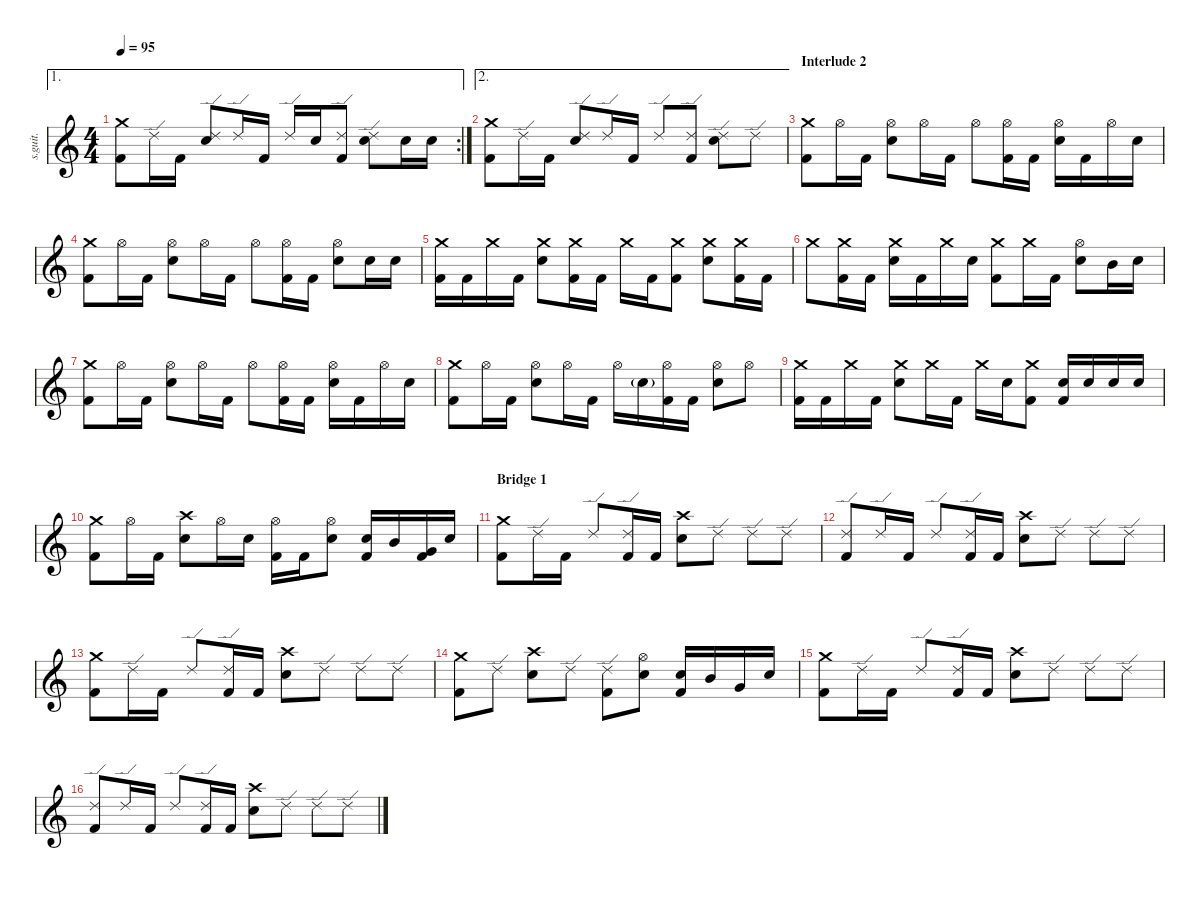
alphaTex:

\defaultSystemsLayout 4
\hideDynamics
\bracketExtendMode nobrackets
\track ("Josh Freese" "s.guit.") {instrument percussion}
\staff {score}
\articulation defaults
\ae 1
\rc 2
\ts (4 4)
\tempo 95
\clef g2
\ks c
("Crash medium (hit)" "Kick (hit) 2").8{lyrics (0 "") lyrics (1 "") lyrics (2 "") lyrics (3 "") lyrics (4 "") dy f} "Ride (edge) 2".16{lyrics (0 "") lyrics (1 "") lyrics (2 "") lyrics (3 "") lyrics (4 "")} "Kick (hit) 2".16{lyrics (0 "") lyrics (1 "") lyrics (2 "") lyrics (3 "") lyrics (4 "")} ("Ride (edge) 2" "Snare (hit) 2").8{lyrics (0 "") lyrics (1 "") lyrics (2 "") lyrics (3 "") lyrics (4 "")} "Ride (edge) 2".16{lyrics (0 "") lyrics (1 "") lyrics (2 "") lyrics (3 "") lyrics (4 "")} "Kick (hit) 2".16{lyrics (0 "") lyrics (1 "") lyrics (2 "") lyrics (3 "") lyrics (4 "")} "Ride (edge) 2".16{lyrics (0 "") lyrics (1 "") lyrics (2 "") lyrics (3 "") lyrics (4 "")} "Snare (hit) 2".16{lyrics (0 "") lyrics (1 "") lyrics (2 "") lyrics (3 "") lyrics (4 "")} ("Ride (edge) 2" "Kick (hit) 2").8{lyrics (0 "") lyrics (1 "") lyrics (2 "") lyrics (3 "") lyrics (4 "")} ("Ride (edge) 2" "Snare (hit) 2").8{lyrics (0 "") lyrics (1 "") lyrics (2 "") lyrics (3 "") lyrics (4 "")} "Snare (hit) 2".16{lyrics (0 "") lyrics (1 "") lyrics (2 "") lyrics (3 "") lyrics (4 "")} "Snare (hit) 2".16{lyrics (0 "") lyrics (1 "") lyrics (2 "") lyrics (3 "") lyrics (4 "")} |
\ae 2
("Crash medium (hit)" "Kick (hit) 2").8{lyrics (0 "") lyrics (1 "") lyrics (2 "") lyrics (3 "") lyrics (4 "")} "Ride (edge) 2".16{lyrics (0 "") lyrics (1 "") lyrics (2 "") lyrics (3 "") lyrics (4 "")} "Kick (hit) 2".16{lyrics (0 "") lyrics (1 "") lyrics (2 "") lyrics (3 "") lyrics (4 "")} ("Ride (edge) 2" "Snare (hit) 2").8{lyrics (0 "") lyrics (1 "") lyrics (2 "") lyrics (3 "") lyrics (4 "")} "Ride (edge) 2".16{lyrics (0 "") lyrics (1 "") lyrics (2 "") lyrics (3 "") lyrics (4 "")} "Kick (hit) 2".16{lyrics (0 "") lyrics (1 "") lyrics (2 "") lyrics (3 "") lyrics (4 "")} "Ride (edge) 2".8{lyrics (0 "") lyrics (1 "") lyrics (2 "") lyrics (3 "") lyrics (4 "")} ("Ride (edge) 2" "Kick (hit) 2").8{lyrics (0 "") lyrics (1 "") lyrics (2 "") lyrics (3 "") lyrics (4 "")} ("Ride (edge) 2" "Snare (hit) 2").8{lyrics (0 "") lyrics (1 "") lyrics (2 "") lyrics (3 "") lyrics (4 "")} "Ride (edge) 2".8{lyrics (0 "") lyrics (1 "") lyrics (2 "") lyrics (3 "") lyrics (4 "")} |
\section ("" "Interlude 2")
("Crash medium (hit)" "Kick (hit) 2").8{lyrics (0 "") lyrics (1 "") lyrics (2 "") lyrics (3 "") lyrics (4 "")} "Hi-Hat (open)".16{lyrics (0 "") lyrics (1 "") lyrics (2 "") lyrics (3 "") lyrics (4 "")} "Kick (hit) 2".16{lyrics (0 "") lyrics (1 "") lyrics (2 "") lyrics (3 "") lyrics (4 "")} ("Hi-Hat (open)" "Snare (hit) 2").8{lyrics (0 "") lyrics (1 "") lyrics (2 "") lyrics (3 "") lyrics (4 "")} "Hi-Hat (open)".16{lyrics (0 "") lyrics (1 "") lyrics (2 "") lyrics (3 "") lyrics (4 "")} "Kick (hit) 2".16{lyrics (0 "") lyrics (1 "") lyrics (2 "") lyrics (3 "") lyrics (4 "")} "Hi-Hat (open)".8{lyrics (0 "") lyrics (1 "") lyrics (2 "") lyrics (3 "") lyrics (4 "")} ("Hi-Hat (open)" "Kick (hit) 2").16{lyrics (0 "") lyrics (1 "") lyrics (2 "") lyrics (3 "") lyrics (4 "")} "Kick (hit) 2".16{lyrics (0 "") lyrics (1 "") lyrics (2 "") lyrics (3 "") lyrics (4 "")} ("Hi-Hat (open)" "Snare (hit) 2").16{lyrics (0 "") lyrics (1 "") lyrics (2 "") lyrics (3 "") lyrics (4 "")} "Kick (hit) 2".16{lyrics (0 "") lyrics (1 "") lyrics (2 "") lyrics (3 "") lyrics (4 "")} "Hi-Hat (open)".16{lyrics (0 "") lyrics (1 "") lyrics (2 "") lyrics (3 "") lyrics (4 "")} "Snare (hit) 2".16{lyrics (0 "") lyrics (1 "") lyrics (2 "") lyrics (3 "") lyrics (4 "")} |
("Crash medium (hit)" "Kick (hit) 2").8{lyrics (0 "") lyrics (1 "") lyrics (2 "") lyrics (3 "") lyrics (4 "")} "Hi-Hat (open)".16{lyrics (0 "") lyrics (1 "") lyrics (2 "") lyrics (3 "") lyrics (4 "")} "Kick (hit) 2".16{lyrics (0 "") lyrics (1 "") lyrics (2 "") lyrics (3 "") lyrics (4 "")} ("Hi-Hat (open)" "Snare (hit) 2").8{lyrics (0 "") lyrics (1 "") lyrics (2 "") lyrics (3 "") lyrics (4 "")} "Hi-Hat (open)".16{lyrics (0 "") lyrics (1 "") lyrics (2 "") lyrics (3 "") lyrics (4 "")} "Kick (hit) 2".16{lyrics (0 "") lyrics (1 "") lyrics (2 "") lyrics (3 "") lyrics (4 "")} "Hi-Hat (open)".8{lyrics (0 "") lyrics (1 "") lyrics (2 "") lyrics (3 "") lyrics (4 "")} ("Hi-Hat (open)" "Kick (hit) 2").16{lyrics (0 "") lyrics (1 "") lyrics (2 "") lyrics (3 "") lyrics (4 "")} "Kick (hit) 2".16{lyrics (0 "") lyrics (1 "") lyrics (2 "") lyrics (3 "") lyrics (4 "")} ("Hi-Hat (open)" "Snare (hit) 2").8{lyrics (0 "") lyrics (1 "") lyrics (2 "") lyrics (3 "") lyrics (4 "")} "Snare (hit) 2".16{lyrics (0 "") lyrics (1 "") lyrics (2 "") lyrics (3 "") lyrics (4 "")} "Snare (hit) 2".16{lyrics (0 "") lyrics (1 "") lyrics (2 "") lyrics (3 "") lyrics (4 "")} |
("Crash medium (hit)" "Kick (hit) 2").16{lyrics (0 "") lyrics (1 "") lyrics (2 "") lyrics (3 "") lyrics (4 "")} "Kick (hit) 2".16{lyrics (0 "") lyrics (1 "") lyrics (2 "") lyrics (3 "") lyrics (4 "")} "Crash medium (hit)".16{lyrics (0 "") lyrics (1 "") lyrics (2 "") lyrics (3 "") lyrics (4 "")} "Kick (hit) 2".16{lyrics (0 "") lyrics (1 "") lyrics (2 "") lyrics (3 "") lyrics (4 "")} ("Crash medium (hit)" "Snare (hit) 2").8{lyrics (0 "") lyrics (1 "") lyrics (2 "") lyrics (3 "") lyrics (4 "")} ("Crash medium (hit)" "Kick (hit) 2").16{lyrics (0 "") lyrics (1 "") lyrics (2 "") lyrics (3 "") lyrics (4 "")} "Kick (hit) 2".16{lyrics (0 "") lyrics (1 "") lyrics (2 "") lyrics (3 "") lyrics (4 "")} "Crash medium (hit)".16{lyrics (0 "") lyrics (1 "") lyrics (2 "") lyrics (3 "") lyrics (4 "")} "Kick (hit) 2".16{lyrics (0 "") lyrics (1 "") lyrics (2 "") lyrics (3 "") lyrics (4 "")} ("Crash medium (hit)" "Kick (hit) 2").8{lyrics (0 "") lyrics (1 "") lyrics (2 "") lyrics (3 "") lyrics (4 "")} ("Crash medium (hit)" "Snare (hit) 2").8{lyrics (0 "") lyrics (1 "") lyrics (2 "") lyrics (3 "") lyrics (4 "")} ("Crash medium (hit)" "Kick (hit) 2").16{lyrics (0 "") lyrics (1 "") lyrics (2 "") lyrics (3 "") lyrics (4 "")} "Kick (hit) 2".16{lyrics (0 "") lyrics (1 "") lyrics (2 "") lyrics (3 "") lyrics (4 "")} |
"Crash medium (hit)".8{lyrics (0 "") lyrics (1 "") lyrics (2 "") lyrics (3 "") lyrics (4 "")} ("Crash medium (hit)" "Kick (hit) 2").16{lyrics (0 "") lyrics (1 "") lyrics (2 "") lyrics (3 "") lyrics (4 "")} "Kick (hit) 2".16{lyrics (0 "") lyrics (1 "") lyrics (2 "") lyrics (3 "") lyrics (4 "")} ("Crash medium (hit)" "Snare (hit) 2").16{lyrics (0 "") lyrics (1 "") lyrics (2 "") lyrics (3 "") lyrics (4 "")} "Kick (hit) 2".16{lyrics (0 "") lyrics (1 "") lyrics (2 "") lyrics (3 "") lyrics (4 "")} "Crash medium (hit)".16{lyrics (0 "") lyrics (1 "") lyrics (2 "") lyrics (3 "") lyrics (4 "")} "Snare (hit) 2".16{lyrics (0 "") lyrics (1 "") lyrics (2 "") lyrics (3 "") lyrics (4 "")} ("Crash medium (hit)" "Kick (hit) 2").8{lyrics (0 "") lyrics (1 "") lyrics (2 "") lyrics (3 "") lyrics (4 "")} "Crash medium (hit)".16{lyrics (0 "") lyrics (1 "") lyrics (2 "") lyrics (3 "") lyrics (4 "")} "Kick (hit) 2".16{lyrics (0 "") lyrics (1 "") lyrics (2 "") lyrics (3 "") lyrics (4 "")} ("Hi-Hat (open)" "Snare (hit) 2").8{lyrics (0 "") lyrics (1 "") lyrics (2 "") lyrics (3 "") lyrics (4 "")} "Mid Tom (hit)".16{lyrics (0 "") lyrics (1 "") lyrics (2 "") lyrics (3 "") lyrics (4 "")} "Snare (hit) 2".16{lyrics (0 "") lyrics (1 "") lyrics (2 "") lyrics (3 "") lyrics (4 "")} |
("Crash medium (hit)" "Kick (hit) 2").8{lyrics (0 "") lyrics (1 "") lyrics (2 "") lyrics (3 "") lyrics (4 "")} "Hi-Hat (open)".16{lyrics (0 "") lyrics (1 "") lyrics (2 "") lyrics (3 "") lyrics (4 "")} "Kick (hit) 2".16{lyrics (0 "") lyrics (1 "") lyrics (2 "") lyrics (3 "") lyrics (4 "")} ("Hi-Hat (open)" "Snare (hit) 2").8{lyrics (0 "") lyrics (1 "") lyrics (2 "") lyrics (3 "") lyrics (4 "")} "Hi-Hat (open)".16{lyrics (0 "") lyrics (1 "") lyrics (2 "") lyrics (3 "") lyrics (4 "")} "Kick (hit) 2".16{lyrics (0 "") lyrics (1 "") lyrics (2 "") lyrics (3 "") lyrics (4 "")} "Hi-Hat (open)".8{lyrics (0 "") lyrics (1 "") lyrics (2 "") lyrics (3 "") lyrics (4 "")} ("Hi-Hat (open)" "Kick (hit) 2").16{lyrics (0 "") lyrics (1 "") lyrics (2 "") lyrics (3 "") lyrics (4 "")} "Kick (hit) 2".16{lyrics (0 "") lyrics (1 "") lyrics (2 "") lyrics (3 "") lyrics (4 "")} ("Hi-Hat (open)" "Snare (hit) 2").16{lyrics (0 "") lyrics (1 "") lyrics (2 "") lyrics (3 "") lyrics (4 "")} "Kick (hit) 2".16{lyrics (0 "") lyrics (1 "") lyrics (2 "") lyrics (3 "") lyrics (4 "")} "Hi-Hat (open)".16{lyrics (0 "") lyrics (1 "") lyrics (2 "") lyrics (3 "") lyrics (4 "")} "Snare (hit) 2".16{lyrics (0 "") lyrics (1 "") lyrics (2 "") lyrics (3 "") lyrics (4 "")} |
("Crash medium (hit)" "Kick (hit) 2").8{lyrics (0 "") lyrics (1 "") lyrics (2 "") lyrics (3 "") lyrics (4 "")} "Hi-Hat (open)".16{lyrics (0 "") lyrics (1 "") lyrics (2 "") lyrics (3 "") lyrics (4 "")} "Kick (hit) 2".16{lyrics (0 "") lyrics (1 "") lyrics (2 "") lyrics (3 "") lyrics (4 "")} ("Hi-Hat (open)" "Snare (hit) 2").8{lyrics (0 "") lyrics (1 "") lyrics (2 "") lyrics (3 "") lyrics (4 "")} "Hi-Hat (open)".16{lyrics (0 "") lyrics (1 "") lyrics (2 "") lyrics (3 "") lyrics (4 "")} "Kick (hit) 2".16{lyrics (0 "") lyrics (1 "") lyrics (2 "") lyrics (3 "") lyrics (4 "")} "Hi-Hat (open)".16{lyrics (0 "") lyrics (1 "") lyrics (2 "") lyrics (3 "") lyrics (4 "")} "Snare (hit) 2"{g}.16{lyrics (0 "") lyrics (1 "") lyrics (2 "") lyrics (3 "") lyrics (4 "")} ("Hi-Hat (open)" "Kick (hit) 2").16{lyrics (0 "") lyrics (1 "") lyrics (2 "") lyrics (3 "") lyrics (4 "")} "Kick (hit) 2".16{lyrics (0 "") lyrics (1 "") lyrics (2 "") lyrics (3 "") lyrics (4 "")} ("Hi-Hat (open)" "Snare (hit) 2").8{lyrics (0 "") lyrics (1 "") lyrics (2 "") lyrics (3 "") lyrics (4 "")} "Hi-Hat (open)".8{lyrics (0 "") lyrics (1 "") lyrics (2 "") lyrics (3 "") lyrics (4 "")} |
("Crash medium (hit)" "Kick (hit) 2").16{lyrics (0 "") lyrics (1 "") lyrics (2 "") lyrics (3 "") lyrics (4 "")} "Kick (hit) 2".16{lyrics (0 "") lyrics (1 "") lyrics (2 "") lyrics (3 "") lyrics (4 "")} "Crash medium (hit)".16{lyrics (0 "") lyrics (1 "") lyrics (2 "") lyrics (3 "") lyrics (4 "")} "Kick (hit) 2".16{lyrics (0 "") lyrics (1 "") lyrics (2 "") lyrics (3 "") lyrics (4 "")} ("Crash medium (hit)" "Snare (hit) 2").8{lyrics (0 "") lyrics (1 "") lyrics (2 "") lyrics (3 "") lyrics (4 "")} "Crash medium (hit)".16{lyrics (0 "") lyrics (1 "") lyrics (2 "") lyrics (3 "") lyrics (4 "")} "Kick (hit) 2".16{lyrics (0 "") lyrics (1 "") lyrics (2 "") lyrics (3 "") lyrics (4 "")} "Crash medium (hit)".16{lyrics (0 "") lyrics (1 "") lyrics (2 "") lyrics (3 "") lyrics (4 "")} "Snare (hit) 2".16{lyrics (0 "") lyrics (1 "") lyrics (2 "") lyrics (3 "") lyrics (4 "")} ("Crash medium (hit)" "Kick (hit) 2").8{lyrics (0 "") lyrics (1 "") lyrics (2 "") lyrics (3 "") lyrics (4 "")} ("Snare (hit) 2" "Kick (hit) 2").16{lyrics (0 "") lyrics (1 "") lyrics (2 "") lyrics (3 "") lyrics (4 "")} "Snare (hit) 2".16{lyrics (0 "") lyrics (1 "") lyrics (2 "") lyrics (3 "") lyrics (4 "")} "Snare (hit) 2".16{lyrics (0 "") lyrics (1 "") lyrics (2 "") lyrics (3 "") lyrics (4 "")} "Snare (hit) 2".16{lyrics (0 "") lyrics (1 "") lyrics (2 "") lyrics (3 "") lyrics (4 "")} |
("Crash medium (hit)" "Kick (hit) 2").8{lyrics (0 "") lyrics (1 "") lyrics (2 "") lyrics (3 "") lyrics (4 "")} "Hi-Hat (open)".16{lyrics (0 "") lyrics (1 "") lyrics (2 "") lyrics (3 "") lyrics (4 "")} "Kick (hit) 2".16{lyrics (0 "") lyrics (1 "") lyrics (2 "") lyrics (3 "") lyrics (4 "")} ("Crash high (hit)" "Snare (hit) 2").8{lyrics (0 "") lyrics (1 "") lyrics (2 "") lyrics (3 "") lyrics (4 "")} "Hi-Hat (open)".16{lyrics (0 "") lyrics (1 "") lyrics (2 "") lyrics (3 "") lyrics (4 "")} "Snare (hit) 2".16{lyrics (0 "") lyrics (1 "") lyrics (2 "") lyrics (3 "") lyrics (4 "")} ("Hi-Hat (open)" "Kick (hit) 2").16{lyrics (0 "") lyrics (1 "") lyrics (2 "") lyrics (3 "") lyrics (4 "")} "Kick (hit) 2".16{lyrics (0 "") lyrics (1 "") lyrics (2 "") lyrics (3 "") lyrics (4 "")} ("Hi-Hat (open)" "Snare (hit) 2").8{lyrics (0 "") lyrics (1 "") lyrics (2 "") lyrics (3 "") lyrics (4 "")} ("Snare (hit) 2" "Kick (hit) 2").16{lyrics (0 "") lyrics (1 "") lyrics (2 "") lyrics (3 "") lyrics (4 "")} "Mid Tom (hit)".16{lyrics (0 "") lyrics (1 "") lyrics (2 "") lyrics (3 "") lyrics (4 "")} ("Very Low Tom (hit)" "Kick (hit) 2").16{lyrics (0 "") lyrics (1 "") lyrics (2 "") lyrics (3 "") lyrics (4 "")} "Snare (hit) 2".16{lyrics (0 "") lyrics (1 "") lyrics (2 "") lyrics (3 "") lyrics (4 "")} |
\section ("" "Bridge 1")
("Crash medium (hit)" "Kick (hit) 2").8{lyrics (0 "") lyrics (1 "") lyrics (2 "") lyrics (3 "") lyrics (4 "")} "Ride (edge) 2".16{lyrics (0 "") lyrics (1 "") lyrics (2 "") lyrics (3 "") lyrics (4 "")} "Kick (hit) 2".16{lyrics (0 "") lyrics (1 "") lyrics (2 "") lyrics (3 "") lyrics (4 "")} "Ride (edge) 2".8{lyrics (0 "") lyrics (1 "") lyrics (2 "") lyrics (3 "") lyrics (4 "")} ("Ride (edge) 2" "Kick (hit) 2").16{lyrics (0 "") lyrics (1 "") lyrics (2 "") lyrics (3 "") lyrics (4 "")} "Kick (hit) 2".16{lyrics (0 "") lyrics (1 "") lyrics (2 "") lyrics (3 "") lyrics (4 "")} ("Crash high (hit)" "Snare (hit) 2").8{lyrics (0 "") lyrics (1 "") lyrics (2 "") lyrics (3 "") lyrics (4 "")} "Ride (edge) 2".8{lyrics (0 "") lyrics (1 "") lyrics (2 "") lyrics (3 "") lyrics (4 "")} "Ride (edge) 2".8{lyrics (0 "") lyrics (1 "") lyrics (2 "") lyrics (3 "") lyrics (4 "")} "Ride (edge) 2".8{lyrics (0 "") lyrics (1 "") lyrics (2 "") lyrics (3 "") lyrics (4 "")} |
("Ride (edge) 2" "Kick (hit) 2").8{lyrics (0 "") lyrics (1 "") lyrics (2 "") lyrics (3 "") lyrics (4 "")} "Ride (edge) 2".16{lyrics (0 "") lyrics (1 "") lyrics (2 "") lyrics (3 "") lyrics (4 "")} "Kick (hit) 2".16{lyrics (0 "") lyrics (1 "") lyrics (2 "") lyrics (3 "") lyrics (4 "")} "Ride (edge) 2".8{lyrics (0 "") lyrics (1 "") lyrics (2 "") lyrics (3 "") lyrics (4 "")} ("Ride (edge) 2" "Kick (hit) 2").16{lyrics (0 "") lyrics (1 "") lyrics (2 "") lyrics (3 "") lyrics (4 "")} "Kick (hit) 2".16{lyrics (0 "") lyrics (1 "") lyrics (2 "") lyrics (3 "") lyrics (4 "")} ("Crash high (hit)" "Snare (hit) 2").8{lyrics (0 "") lyrics (1 "") lyrics (2 "") lyrics (3 "") lyrics (4 "")} "Ride (edge) 2".8{lyrics (0 "") lyrics (1 "") lyrics (2 "") lyrics (3 "") lyrics (4 "")} "Ride (edge) 2".8{lyrics (0 "") lyrics (1 "") lyrics (2 "") lyrics (3 "") lyrics (4 "")} "Ride (edge) 2".8{lyrics (0 "") lyrics (1 "") lyrics (2 "") lyrics (3 "") lyrics (4 "")} |
("Crash medium (hit)" "Kick (hit) 2").8{lyrics (0 "") lyrics (1 "") lyrics (2 "") lyrics (3 "") lyrics (4 "")} "Ride (edge) 2".16{lyrics (0 "") lyrics (1 "") lyrics (2 "") lyrics (3 "") lyrics (4 "")} "Kick (hit) 2".16{lyrics (0 "") lyrics (1 "") lyrics (2 "") lyrics (3 "") lyrics (4 "")} "Ride (edge) 2".8{lyrics (0 "") lyrics (1 "") lyrics (2 "") lyrics (3 "") lyrics (4 "")} ("Ride (edge) 2" "Kick (hit) 2").16{lyrics (0 "") lyrics (1 "") lyrics (2 "") lyrics (3 "") lyrics (4 "")} "Kick (hit) 2".16{lyrics (0 "") lyrics (1 "") lyrics (2 "") lyrics (3 "") lyrics (4 "")} ("Crash high (hit)" "Snare (hit) 2").8{lyrics (0 "") lyrics (1 "") lyrics (2 "") lyrics (3 "") lyrics (4 "")} "Ride (edge) 2".8{lyrics (0 "") lyrics (1 "") lyrics (2 "") lyrics (3 "") lyrics (4 "")} "Ride (edge) 2".8{lyrics (0 "") lyrics (1 "") lyrics (2 "") lyrics (3 "") lyrics (4 "")} "Ride (edge) 2".8{lyrics (0 "") lyrics (1 "") lyrics (2 "") lyrics (3 "") lyrics (4 "")} |
("Crash medium (hit)" "Kick (hit) 2").8{lyrics (0 "") lyrics (1 "") lyrics (2 "") lyrics (3 "") lyrics (4 "")} "Ride (edge) 2".8{lyrics (0 "") lyrics (1 "") lyrics (2 "") lyrics (3 "") lyrics (4 "")} ("Crash high (hit)" "Snare (hit) 2").8{lyrics (0 "") lyrics (1 "") lyrics (2 "") lyrics (3 "") lyrics (4 "")} "Ride (edge) 2".8{lyrics (0 "") lyrics (1 "") lyrics (2 "") lyrics (3 "") lyrics (4 "")} ("Ride (edge) 2" "Kick (hit) 2").8{lyrics (0 "") lyrics (1 "") lyrics (2 "") lyrics (3 "") lyrics (4 "")} ("Hi-Hat (open)" "Snare (hit) 2").8{lyrics (0 "") lyrics (1 "") lyrics (2 "") lyrics (3 "") lyrics (4 "")} ("Snare (hit) 2" "Kick (hit) 2").16{lyrics (0 "") lyrics (1 "") lyrics (2 "") lyrics (3 "") lyrics (4 "")} "Mid Tom (hit)".16{lyrics (0 "") lyrics (1 "") lyrics (2 "") lyrics (3 "") lyrics (4 "")} "Very Low Tom (hit)".16{lyrics (0 "") lyrics (1 "") lyrics (2 "") lyrics (3 "") lyrics (4 "")} "Snare (hit) 2".16{lyrics (0 "") lyrics (1 "") lyrics (2 "") lyrics (3 "") lyrics (4 "")} |
("Crash medium (hit)" "Kick (hit) 2").8{lyrics (0 "") lyrics (1 "") lyrics (2 "") lyrics (3 "") lyrics (4 "")} "Ride (edge) 2".16{lyrics (0 "") lyrics (1 "") lyrics (2 "") lyrics (3 "") lyrics (4 "")} "Kick (hit) 2".16{lyrics (0 "") lyrics (1 "") lyrics (2 "") lyrics (3 "") lyrics (4 "")} "Ride (edge) 2".8{lyrics (0 "") lyrics (1 "") lyrics (2 "") lyrics (3 "") lyrics (4 "")} ("Ride (edge) 2" "Kick (hit) 2").16{lyrics (0 "") lyrics (1 "") lyrics (2 "") lyrics (3 "") lyrics (4 "")} "Kick (hit) 2".16{lyrics (0 "") lyrics (1 "") lyrics (2 "") lyrics (3 "") lyrics (4 "")} ("Crash high (hit)" "Snare (hit) 2").8{lyrics (0 "") lyrics (1 "") lyrics (2 "") lyrics (3 "") lyrics (4 "")} "Ride (edge) 2".8{lyrics (0 "") lyrics (1 "") lyrics (2 "") lyrics (3 "") lyrics (4 "")} "Ride (edge) 2".8{lyrics (0 "") lyrics (1 "") lyrics (2 "") lyrics (3 "") lyrics (4 "")} "Ride (edge) 2".8{lyrics (0 "") lyrics (1 "") lyrics (2 "") lyrics (3 "") lyrics (4 "")} |
("Ride (edge) 2" "Kick (hit) 2").8{lyrics (0 "") lyrics (1 "") lyrics (2 "") lyrics (3 "") lyrics (4 "")} "Ride (edge) 2".16{lyrics (0 "") lyrics (1 "") lyrics (2 "") lyrics (3 "") lyrics (4 "")} "Kick (hit) 2".16{lyrics (0 "") lyrics (1 "") lyrics (2 "") lyrics (3 "") lyrics (4 "")} "Ride (edge) 2".8{lyrics (0 "") lyrics (1 "") lyrics (2 "") lyrics (3 "") lyrics (4 "")} ("Ride (edge) 2" "Kick (hit) 2").16{lyrics (0 "") lyrics (1 "") lyrics (2 "") lyrics (3 "") lyrics (4 "")} "Kick (hit) 2".16{lyrics (0 "") lyrics (1 "") lyrics (2 "") lyrics (3 "") lyrics (4 "")} ("Crash high (hit)" "Snare (hit) 2").8{lyrics (0 "") lyrics (1 "") lyrics (2 "") lyrics (3 "") lyrics (4 "")} "Ride (edge) 2".8{lyrics (0 "") lyrics (1 "") lyrics (2 "") lyrics (3 "") lyrics (4 "")} "Ride (edge) 2".8{lyrics (0 "") lyrics (1 "") lyrics (2 "") lyrics (3 "") lyrics (4 "")} "Ride (edge) 2".8{lyrics (0 "") lyrics (1 "") lyrics (2 "") lyrics (3 "") lyrics (4 "")}
